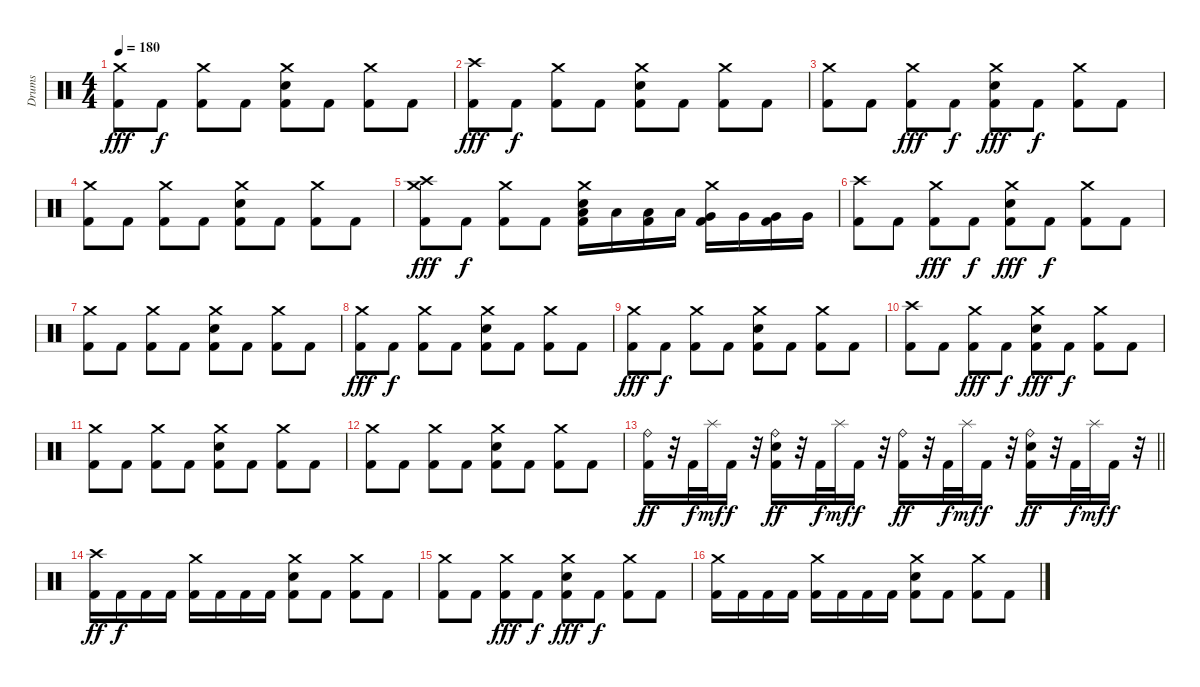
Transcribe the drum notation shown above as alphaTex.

\track ("Drums" "Drums") {instrument percussion}
\staff {score}
\articulation defaults
\ts (4 4)
\tempo 180
\clef neutral
\ks c
("Crash medium (hit)" "Kick (hit) 2").8{dy fff} "Kick (hit) 2".8{dy f} ("Crash medium (hit)" "Kick (hit) 2").8 "Kick (hit) 2".8 ("Crash medium (hit)" "Snare (hit) 2" "Kick (hit) 2").8 "Kick (hit) 2".8 ("Crash medium (hit)" "Kick (hit) 2").8 "Kick (hit) 2".8 |
("Kick (hit) 2" "Crash high (hit)").8{dy fff} "Kick (hit) 2".8{dy f} ("Crash medium (hit)" "Kick (hit) 2").8 "Kick (hit) 2".8 ("Crash medium (hit)" "Snare (hit) 2" "Kick (hit) 2").8 "Kick (hit) 2".8 ("Crash medium (hit)" "Kick (hit) 2").8 "Kick (hit) 2".8 |
("Crash medium (hit)" "Kick (hit) 2").8 "Kick (hit) 2".8 ("Crash medium (hit)" "Kick (hit) 2").8{dy fff} "Kick (hit) 2".8{dy f} ("Snare (hit) 2" "Crash medium (hit)" "Kick (hit) 2").8{dy fff} "Kick (hit) 2".8{dy f} ("Crash medium (hit)" "Kick (hit) 2").8 "Kick (hit) 2".8 |
("Crash medium (hit)" "Kick (hit) 2").8 "Kick (hit) 2".8 ("Crash medium (hit)" "Kick (hit) 2").8 "Kick (hit) 2".8 ("Crash medium (hit)" "Snare (hit) 2" "Kick (hit) 2").8 "Kick (hit) 2".8 ("Crash medium (hit)" "Kick (hit) 2").8 "Kick (hit) 2".8 |
("Crash medium (hit)" "Kick (hit) 2" "Crash high (hit)").8{dy fff} "Kick (hit) 2".8{dy f} ("Crash medium (hit)" "Kick (hit) 2").8 "Kick (hit) 2".8 ("Low Tom (hit)" "Kick (hit) 2" "Crash medium (hit)" "Snare (hit) 2").16 "Low Tom (hit)".16 ("Low Tom (hit)" "Kick (hit) 2").16 "Low Tom (hit)".16 ("Very Low Tom (hit)" "Kick (hit) 2" "Crash medium (hit)").16 "Very Low Tom (hit)".16 ("Very Low Tom (hit)" "Kick (hit) 2").16 "Very Low Tom (hit)".16 |
("Crash high (hit)" "Kick (hit) 2").8 "Kick (hit) 2".8 ("Crash medium (hit)" "Kick (hit) 2").8{dy fff} "Kick (hit) 2".8{dy f} ("Snare (hit) 2" "Crash medium (hit)" "Kick (hit) 2").8{dy fff} "Kick (hit) 2".8{dy f} ("Crash medium (hit)" "Kick (hit) 2").8 "Kick (hit) 2".8 |
("Crash medium (hit)" "Kick (hit) 2").8 "Kick (hit) 2".8 ("Crash medium (hit)" "Kick (hit) 2").8 "Kick (hit) 2".8 ("Crash medium (hit)" "Snare (hit) 2" "Kick (hit) 2").8 "Kick (hit) 2".8 ("Crash medium (hit)" "Kick (hit) 2").8 "Kick (hit) 2".8 |
("Crash medium (hit)" "Kick (hit) 2").8{dy fff} "Kick (hit) 2".8{dy f} ("Crash medium (hit)" "Kick (hit) 2").8 "Kick (hit) 2".8 ("Crash medium (hit)" "Snare (hit) 2" "Kick (hit) 2").8 "Kick (hit) 2".8 ("Crash medium (hit)" "Kick (hit) 2").8 "Kick (hit) 2".8 |
("Kick (hit) 2" "Crash medium (hit)").8{dy fff} "Kick (hit) 2".8{dy f} ("Crash medium (hit)" "Kick (hit) 2").8 "Kick (hit) 2".8 ("Crash medium (hit)" "Snare (hit) 2" "Kick (hit) 2").8 "Kick (hit) 2".8 ("Crash medium (hit)" "Kick (hit) 2").8 "Kick (hit) 2".8 |
("Crash high (hit)" "Kick (hit) 2").8 "Kick (hit) 2".8 ("Crash medium (hit)" "Kick (hit) 2").8{dy fff} "Kick (hit) 2".8{dy f} ("Snare (hit) 2" "Crash medium (hit)" "Kick (hit) 2").8{dy fff} "Kick (hit) 2".8{dy f} ("Crash medium (hit)" "Kick (hit) 2").8 "Kick (hit) 2".8 |
("Crash medium (hit)" "Kick (hit) 2").8 "Kick (hit) 2".8 ("Crash medium (hit)" "Kick (hit) 2").8 "Kick (hit) 2".8 ("Crash medium (hit)" "Snare (hit) 2" "Kick (hit) 2").8 "Kick (hit) 2".8 ("Crash medium (hit)" "Kick (hit) 2").8 "Kick (hit) 2".8 |
("Crash medium (hit)" "Kick (hit) 2").8 "Kick (hit) 2".8 ("Crash medium (hit)" "Kick (hit) 2").8 "Kick (hit) 2".8 ("Crash medium (hit)" "Snare (hit) 2" "Kick (hit) 2").8 "Kick (hit) 2".8 ("Crash medium (hit)" "Kick (hit) 2").8 "Kick (hit) 2".8 |
\barLineRight lightlight
("Kick (hit) 2" "Ride (bell)").16{dy ff} r.32 "Kick (hit) 2".32{dy f} "Splash (hit)".32{dy mf} "Kick (hit) 2".16{dy f} r.32 ("Kick (hit) 2" "Snare (hit) 2" "Ride (bell)").16{dy ff} r.32 "Kick (hit) 2".32{dy f} "Splash (hit)".32{dy mf} "Kick (hit) 2".16{dy f} r.32 ("Kick (hit) 2" "Ride (bell)").16{dy ff} r.32 "Kick (hit) 2".32{dy f} "Splash (hit)".32{dy mf} "Kick (hit) 2".16{dy f} r.32 ("Kick (hit) 2" "Snare (hit) 2" "Ride (bell)").16{dy ff} r.32 "Kick (hit) 2".32{dy f} "Splash (hit)".32{dy mf} "Kick (hit) 2".16{dy f} r.32 |
("Crash high (hit)" "Kick (hit) 2").16{dy ff} "Kick (hit) 2".16{dy f} "Kick (hit) 2".16 "Kick (hit) 2".16 ("Crash medium (hit)" "Kick (hit) 2").16 "Kick (hit) 2".16 "Kick (hit) 2".16 "Kick (hit) 2".16 ("Crash medium (hit)" "Snare (hit) 2" "Kick (hit) 2").8 "Kick (hit) 2".8 ("Crash medium (hit)" "Kick (hit) 2").8 "Kick (hit) 2".8 |
("Crash medium (hit)" "Kick (hit) 2").8 "Kick (hit) 2".8 ("Crash medium (hit)" "Kick (hit) 2").8{dy fff} "Kick (hit) 2".8{dy f} ("Snare (hit) 2" "Crash medium (hit)" "Kick (hit) 2").8{dy fff} "Kick (hit) 2".8{dy f} ("Crash medium (hit)" "Kick (hit) 2").8 "Kick (hit) 2".8 |
("Crash medium (hit)" "Kick (hit) 2").16 "Kick (hit) 2".16 "Kick (hit) 2".16 "Kick (hit) 2".16 ("Crash medium (hit)" "Kick (hit) 2").16 "Kick (hit) 2".16 "Kick (hit) 2".16 "Kick (hit) 2".16 ("Crash medium (hit)" "Snare (hit) 2" "Kick (hit) 2").8 "Kick (hit) 2".8 ("Crash medium (hit)" "Kick (hit) 2").8 "Kick (hit) 2".8
